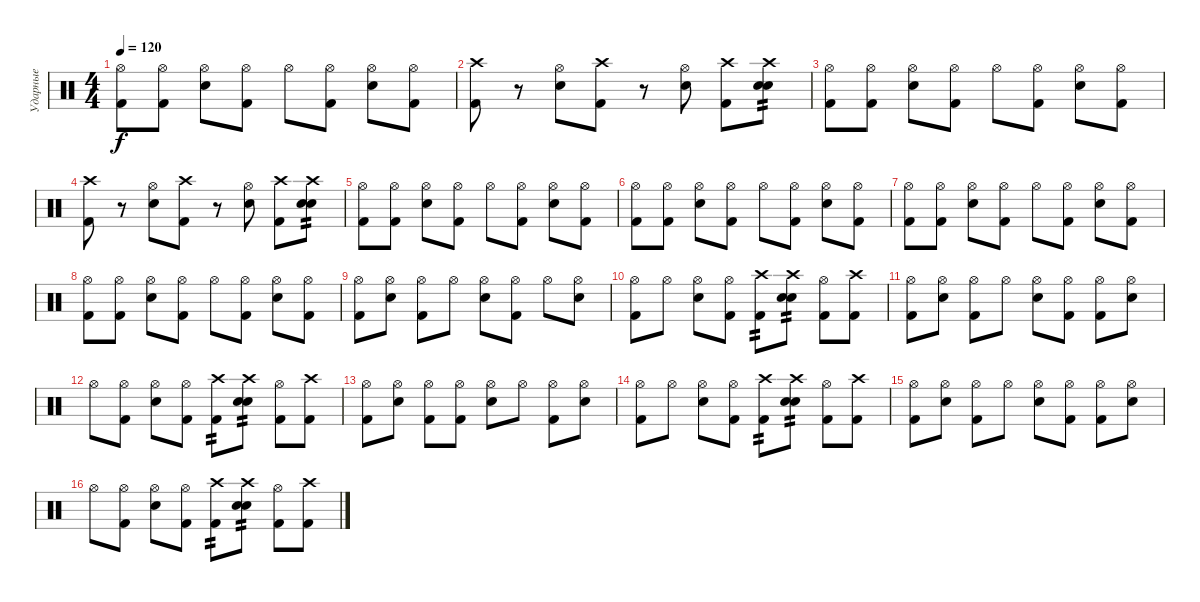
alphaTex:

\track ("Ударные" "Ударные") {instrument percussion}
\staff {score}
\articulation defaults
\ts (4 4)
\tempo 120
\clef neutral
\ks c
("Hi-Hat (open)" "Kick (hit) 2").8{dy f} ("Hi-Hat (open)" "Kick (hit) 2").8 ("Hi-Hat (open)" "Electric Snare (hit)").8 ("Hi-Hat (open)" "Kick (hit) 2").8 "Hi-Hat (open)".8 ("Hi-Hat (open)" "Kick (hit) 2").8 ("Hi-Hat (open)" "Electric Snare (hit)").8 ("Hi-Hat (open)" "Kick (hit) 2").8 |
("Crash high (hit)" "Kick (hit) 2").8 r.8 ("Hi-Hat (open)" "Electric Snare (hit)").8 ("Crash high (hit)" "Kick (hit) 2").8 r.8 ("Hi-Hat (open)" "Electric Snare (hit)").8 ("Crash high (hit)" "Kick (hit) 2").8 ("Crash high (hit)" "Electric Snare (hit)" "Snare (hit)").8{tp 2} |
("Hi-Hat (open)" "Kick (hit) 2").8 ("Hi-Hat (open)" "Kick (hit) 2").8 ("Hi-Hat (open)" "Electric Snare (hit)").8 ("Hi-Hat (open)" "Kick (hit) 2").8 "Hi-Hat (open)".8 ("Hi-Hat (open)" "Kick (hit) 2").8 ("Hi-Hat (open)" "Electric Snare (hit)").8 ("Hi-Hat (open)" "Kick (hit) 2").8 |
("Crash high (hit)" "Kick (hit) 2").8 r.8 ("Hi-Hat (open)" "Electric Snare (hit)").8 ("Crash high (hit)" "Kick (hit) 2").8 r.8 ("Hi-Hat (open)" "Electric Snare (hit)").8 ("Crash high (hit)" "Kick (hit) 2").8 ("Crash high (hit)" "Electric Snare (hit)" "Snare (hit)").8{tp 2} |
("Hi-Hat (open)" "Kick (hit) 2").8 ("Hi-Hat (open)" "Kick (hit) 2").8 ("Hi-Hat (open)" "Electric Snare (hit)").8 ("Hi-Hat (open)" "Kick (hit) 2").8 "Hi-Hat (open)".8 ("Hi-Hat (open)" "Kick (hit) 2").8 ("Hi-Hat (open)" "Electric Snare (hit)").8 ("Hi-Hat (open)" "Kick (hit) 2").8 |
("Hi-Hat (open)" "Kick (hit) 2").8 ("Hi-Hat (open)" "Kick (hit) 2").8 ("Hi-Hat (open)" "Electric Snare (hit)").8 ("Hi-Hat (open)" "Kick (hit) 2").8 "Hi-Hat (open)".8 ("Hi-Hat (open)" "Kick (hit) 2").8 ("Hi-Hat (open)" "Electric Snare (hit)").8 ("Hi-Hat (open)" "Kick (hit) 2").8 |
("Hi-Hat (open)" "Kick (hit) 2").8 ("Hi-Hat (open)" "Kick (hit) 2").8 ("Hi-Hat (open)" "Electric Snare (hit)").8 ("Hi-Hat (open)" "Kick (hit) 2").8 "Hi-Hat (open)".8 ("Hi-Hat (open)" "Kick (hit) 2").8 ("Hi-Hat (open)" "Electric Snare (hit)").8 ("Hi-Hat (open)" "Kick (hit) 2").8 |
("Hi-Hat (open)" "Kick (hit) 2").8 ("Hi-Hat (open)" "Kick (hit) 2").8 ("Hi-Hat (open)" "Electric Snare (hit)").8 ("Hi-Hat (open)" "Kick (hit) 2").8 "Hi-Hat (open)".8 ("Hi-Hat (open)" "Kick (hit) 2").8 ("Hi-Hat (open)" "Electric Snare (hit)").8 ("Hi-Hat (open)" "Kick (hit) 2").8 |
("Hi-Hat (open)" "Kick (hit) 2").8 ("Hi-Hat (open)" "Electric Snare (hit)").8 ("Hi-Hat (open)" "Kick (hit) 2").8 "Hi-Hat (open)".8 ("Hi-Hat (open)" "Electric Snare (hit)").8 ("Hi-Hat (open)" "Kick (hit) 2").8 "Hi-Hat (open)".8 ("Hi-Hat (open)" "Electric Snare (hit)").8 |
("Hi-Hat (open)" "Kick (hit) 2").8 "Hi-Hat (open)".8 ("Hi-Hat (open)" "Electric Snare (hit)").8 ("Hi-Hat (open)" "Kick (hit) 2").8 ("Crash high (hit)" "Kick (hit) 2").8{tp 2} ("Crash high (hit)" "Electric Snare (hit)" "Snare (hit)").8{tp 2} ("Hi-Hat (open)" "Kick (hit) 2").8 ("Crash high (hit)" "Kick (hit) 2").8 |
("Hi-Hat (open)" "Kick (hit) 2").8 ("Hi-Hat (open)" "Electric Snare (hit)").8 ("Hi-Hat (open)" "Kick (hit) 2").8 "Hi-Hat (open)".8 ("Hi-Hat (open)" "Electric Snare (hit)").8 ("Hi-Hat (open)" "Kick (hit) 2").8 ("Hi-Hat (open)" "Kick (hit) 2").8 ("Hi-Hat (open)" "Electric Snare (hit)").8 |
"Hi-Hat (open)".8 ("Hi-Hat (open)" "Kick (hit) 2").8 ("Hi-Hat (open)" "Electric Snare (hit)").8 ("Hi-Hat (open)" "Kick (hit) 2").8 ("Crash high (hit)" "Kick (hit) 2").8{tp 2} ("Crash high (hit)" "Electric Snare (hit)" "Snare (hit)").8{tp 2} ("Hi-Hat (open)" "Kick (hit) 2").8 ("Crash high (hit)" "Kick (hit) 2").8 |
("Hi-Hat (open)" "Kick (hit) 2").8 ("Hi-Hat (open)" "Electric Snare (hit)").8 ("Hi-Hat (open)" "Kick (hit) 2").8 ("Hi-Hat (open)" "Kick (hit) 2").8 ("Hi-Hat (open)" "Electric Snare (hit)").8 "Hi-Hat (open)".8 ("Hi-Hat (open)" "Kick (hit) 2").8 ("Hi-Hat (open)" "Electric Snare (hit)").8 |
("Hi-Hat (open)" "Kick (hit) 2").8 "Hi-Hat (open)".8 ("Hi-Hat (open)" "Electric Snare (hit)").8 ("Hi-Hat (open)" "Kick (hit) 2").8 ("Crash high (hit)" "Kick (hit) 2").8{tp 2} ("Crash high (hit)" "Electric Snare (hit)" "Snare (hit)").8{tp 2} ("Hi-Hat (open)" "Kick (hit) 2").8 ("Crash high (hit)" "Kick (hit) 2").8 |
("Hi-Hat (open)" "Kick (hit) 2").8 ("Hi-Hat (open)" "Electric Snare (hit)").8 ("Hi-Hat (open)" "Kick (hit) 2").8 "Hi-Hat (open)".8 ("Hi-Hat (open)" "Electric Snare (hit)").8 ("Hi-Hat (open)" "Kick (hit) 2").8 ("Hi-Hat (open)" "Kick (hit) 2").8 ("Hi-Hat (open)" "Electric Snare (hit)").8 |
"Hi-Hat (open)".8 ("Hi-Hat (open)" "Kick (hit) 2").8 ("Hi-Hat (open)" "Electric Snare (hit)").8 ("Hi-Hat (open)" "Kick (hit) 2").8 ("Crash high (hit)" "Kick (hit) 2").8{tp 2} ("Crash high (hit)" "Electric Snare (hit)" "Snare (hit)").8{tp 2} ("Hi-Hat (open)" "Kick (hit) 2").8 ("Crash high (hit)" "Kick (hit) 2").8
